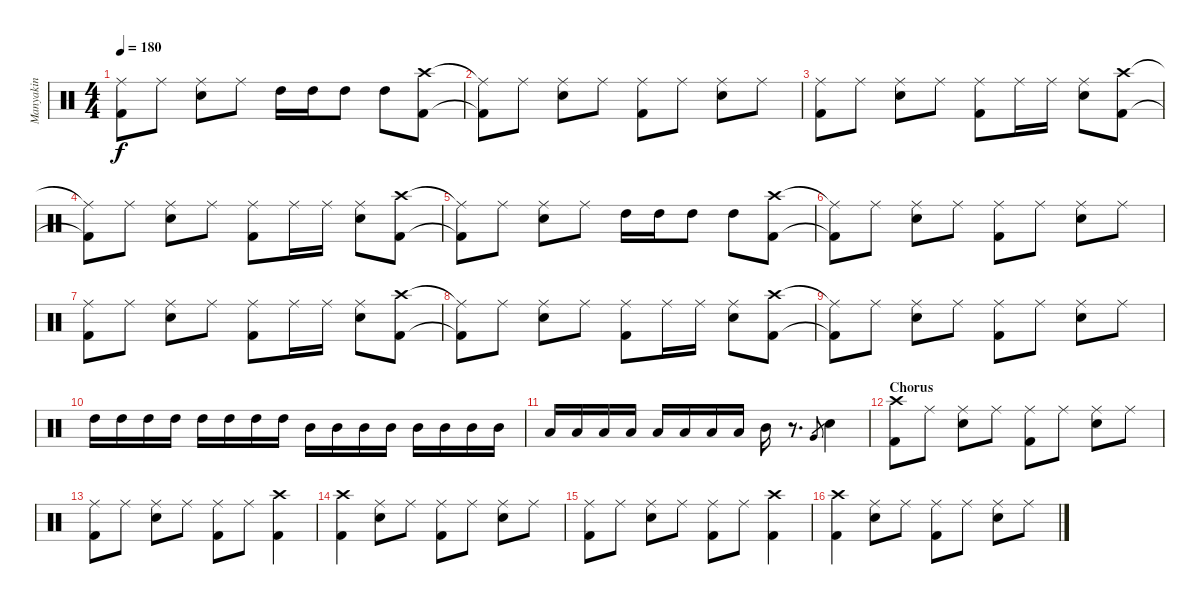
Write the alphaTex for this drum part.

\track ("Manyakin" "Manyakin") {instrument percussion}
\staff {score}
\articulation defaults
\ts (4 4)
\tempo 180
\clef neutral
\ks c
("Kick (hit) 2"{t} "Ride (middle)"{t}).8{dy f} "Ride (middle)".8 ("Snare (hit) 2" "Ride (middle)").8 "Ride (middle)".8 "High Tom (hit)".16 "High Tom (hit)".16 "High Tom (hit)".8 "High Tom (hit)".8 ("Crash high (hit)" "Kick (hit) 2").8 |
("Ride (middle)"{t} "Kick (hit) 2"{t}).8 "Ride (middle)".8 ("Ride (middle)" "Snare (hit) 2").8 "Ride (middle)".8 ("Ride (middle)" "Kick (hit) 2").8 "Ride (middle)".8 ("Ride (middle)" "Snare (hit) 2").8 "Ride (middle)".8 |
("Kick (hit) 2" "Ride (middle)").8 "Ride (middle)".8 ("Snare (hit) 2" "Ride (middle)").8 "Ride (middle)".8 ("Kick (hit) 2" "Ride (middle)").8 "Ride (middle)".16 "Ride (middle)".16 ("Snare (hit) 2" "Ride (middle)").8 ("Kick (hit) 2" "Crash high (hit)").8 |
("Kick (hit) 2"{t} "Ride (middle)"{t}).8 "Ride (middle)".8 ("Snare (hit) 2" "Ride (middle)").8 "Ride (middle)".8 ("Kick (hit) 2" "Ride (middle)").8 "Ride (middle)".16 "Ride (middle)".16 ("Snare (hit) 2" "Ride (middle)").8 ("Kick (hit) 2" "Crash high (hit)").8 |
("Kick (hit) 2"{t} "Ride (middle)"{t}).8 "Ride (middle)".8 ("Snare (hit) 2" "Ride (middle)").8 "Ride (middle)".8 "High Tom (hit)".16 "High Tom (hit)".16 "High Tom (hit)".8 "High Tom (hit)".8 ("Crash high (hit)" "Kick (hit) 2").8 |
("Ride (middle)"{t} "Kick (hit) 2"{t}).8 "Ride (middle)".8 ("Ride (middle)" "Snare (hit) 2").8 "Ride (middle)".8 ("Ride (middle)" "Kick (hit) 2").8 "Ride (middle)".8 ("Ride (middle)" "Snare (hit) 2").8 "Ride (middle)".8 |
("Kick (hit) 2" "Ride (middle)").8 "Ride (middle)".8 ("Snare (hit) 2" "Ride (middle)").8 "Ride (middle)".8 ("Kick (hit) 2" "Ride (middle)").8 "Ride (middle)".16 "Ride (middle)".16 ("Snare (hit) 2" "Ride (middle)").8 ("Kick (hit) 2" "Crash high (hit)").8 |
("Kick (hit) 2"{t} "Ride (middle)"{t}).8 "Ride (middle)".8 ("Snare (hit) 2" "Ride (middle)").8 "Ride (middle)".8 ("Kick (hit) 2" "Ride (middle)").8 "Ride (middle)".16 "Ride (middle)".16 ("Snare (hit) 2" "Ride (middle)").8 ("Kick (hit) 2" "Crash high (hit)").8 |
("Kick (hit) 2"{t} "Ride (middle)"{t}).8 "Ride (middle)".8 ("Snare (hit) 2" "Ride (middle)").8 "Ride (middle)".8 ("Kick (hit) 2" "Ride (middle)").8 "Ride (middle)".8 ("Snare (hit) 2" "Ride (middle)").8 "Ride (middle)".8 |
"High Tom (hit)".16 "High Tom (hit)".16 "High Tom (hit)".16 "High Tom (hit)".16 "High Tom (hit)".16 "High Tom (hit)".16 "High Tom (hit)".16 "High Tom (hit)".16 "Mid Tom (hit)".16 "Mid Tom (hit)".16 "Mid Tom (hit)".16 "Mid Tom (hit)".16 "Mid Tom (hit)".16 "Mid Tom (hit)".16 "Mid Tom (hit)".16 "Mid Tom (hit)".16 |
"Low Tom (hit)".16 "Low Tom (hit)".16 "Low Tom (hit)".16 "Low Tom (hit)".16 "Low Tom (hit)".16 "Low Tom (hit)".16 "Low Tom (hit)".16 "Low Tom (hit)".16 "Mid Tom (hit)".16 r.8{d} "Very Low Tom (hit)".8{gr} "Snare (hit) 2".4 |
\section ("" "Chorus")
("Kick (hit) 2" "Crash high (hit)").8 "Ride (middle)".8 ("Snare (hit) 2" "Ride (middle)").8 "Ride (middle)".8 ("Kick (hit) 2" "Ride (middle)").8 "Ride (middle)".8 ("Snare (hit) 2" "Ride (middle)").8 "Ride (middle)".8 |
("Kick (hit) 2" "Ride (middle)").8 "Ride (middle)".8 ("Snare (hit) 2" "Ride (middle)").8 "Ride (middle)".8 ("Kick (hit) 2" "Ride (middle)").8 "Ride (middle)".8 ("Kick (hit) 2" "Crash high (hit)").4 |
("Kick (hit) 2" "Crash high (hit)").4 ("Snare (hit) 2" "Ride (middle)").8 "Ride (middle)".8 ("Kick (hit) 2" "Ride (middle)").8 "Ride (middle)".8 ("Snare (hit) 2" "Ride (middle)").8 "Ride (middle)".8 |
("Kick (hit) 2" "Ride (middle)").8 "Ride (middle)".8 ("Snare (hit) 2" "Ride (middle)").8 "Ride (middle)".8 ("Kick (hit) 2" "Ride (middle)").8 "Ride (middle)".8 ("Kick (hit) 2" "Crash high (hit)").4 |
("Kick (hit) 2" "Crash high (hit)").4 ("Snare (hit) 2" "Ride (middle)").8 "Ride (middle)".8 ("Kick (hit) 2" "Ride (middle)").8 "Ride (middle)".8 ("Snare (hit) 2" "Ride (middle)").8 "Ride (middle)".8
